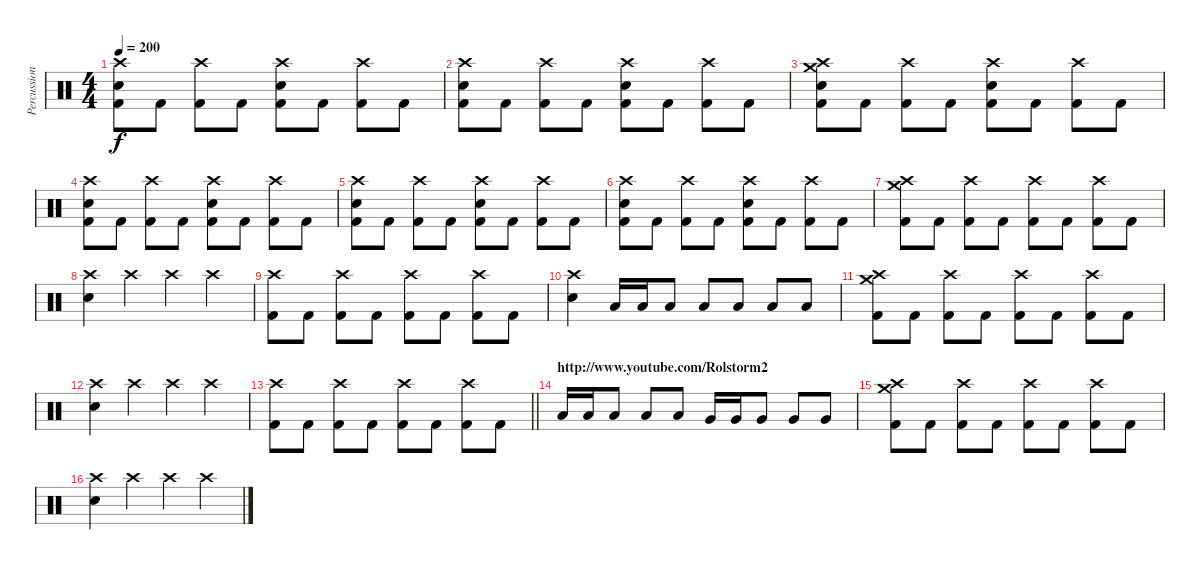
\track ("Percussion" "Percussion") {instrument percussion}
\staff {score}
\articulation defaults
\ts (4 4)
\tempo 200
\clef neutral
\ks c
("Crash high (hit)" "Electric Snare (hit)" "Kick (hit) 2").8{dy f} "Kick (hit) 2".8 ("Crash high (hit)" "Kick (hit) 2").8 "Kick (hit) 2".8 ("Crash high (hit)" "Electric Snare (hit)" "Kick (hit) 2").8 "Kick (hit) 2".8 ("Crash high (hit)" "Kick (hit) 2").8 "Kick (hit) 2".8 |
("Crash high (hit)" "Electric Snare (hit)" "Kick (hit) 2").8 "Kick (hit) 2".8 ("Crash high (hit)" "Kick (hit) 2").8 "Kick (hit) 2".8 ("Crash high (hit)" "Electric Snare (hit)" "Kick (hit) 2").8 "Kick (hit) 2".8 ("Crash high (hit)" "Kick (hit) 2").8 "Kick (hit) 2".8 |
("Crash high (hit)" "Crash medium (hit)" "Electric Snare (hit)" "Kick (hit) 2").8 "Kick (hit) 2".8 ("Crash high (hit)" "Kick (hit) 2").8 "Kick (hit) 2".8 ("Crash high (hit)" "Electric Snare (hit)" "Kick (hit) 2").8 "Kick (hit) 2".8 ("Crash high (hit)" "Kick (hit) 2").8 "Kick (hit) 2".8 |
("Crash high (hit)" "Electric Snare (hit)" "Kick (hit) 2").8 "Kick (hit) 2".8 ("Crash high (hit)" "Kick (hit) 2").8 "Kick (hit) 2".8 ("Crash high (hit)" "Electric Snare (hit)" "Kick (hit) 2").8 "Kick (hit) 2".8 ("Crash high (hit)" "Kick (hit) 2").8 "Kick (hit) 2".8 |
("Crash high (hit)" "Electric Snare (hit)" "Kick (hit) 2").8 "Kick (hit) 2".8 ("Crash high (hit)" "Kick (hit) 2").8 "Kick (hit) 2".8 ("Crash high (hit)" "Electric Snare (hit)" "Kick (hit) 2").8 "Kick (hit) 2".8 ("Crash high (hit)" "Kick (hit) 2").8 "Kick (hit) 2".8 |
("Crash high (hit)" "Electric Snare (hit)" "Kick (hit) 2").8 "Kick (hit) 2".8 ("Crash high (hit)" "Kick (hit) 2").8 "Kick (hit) 2".8 ("Crash high (hit)" "Electric Snare (hit)" "Kick (hit) 2").8 "Kick (hit) 2".8 ("Crash high (hit)" "Kick (hit) 2").8 "Kick (hit) 2".8 |
("Crash high (hit)" "Crash medium (hit)" "Kick (hit) 2").8 "Kick (hit) 2".8 ("Crash high (hit)" "Kick (hit) 2").8 "Kick (hit) 2".8 ("Crash high (hit)" "Kick (hit) 2").8 "Kick (hit) 2".8 ("Crash high (hit)" "Kick (hit) 2").8 "Kick (hit) 2".8 |
("Crash high (hit)" "Electric Snare (hit)").4 "Crash high (hit)".4 "Crash high (hit)".4 "Crash high (hit)".4 |
("Crash high (hit)" "Kick (hit) 2").8 "Kick (hit) 2".8 ("Crash high (hit)" "Kick (hit) 2").8 "Kick (hit) 2".8 ("Crash high (hit)" "Kick (hit) 2").8 "Kick (hit) 2".8 ("Crash high (hit)" "Kick (hit) 2").8 "Kick (hit) 2".8 |
("Crash high (hit)" "Electric Snare (hit)").4 "Low Tom (hit)".16 "Low Tom (hit)".16 "Low Tom (hit)".8 "Low Tom (hit)".8 "Low Tom (hit)".8 "Low Tom (hit)".8 "Low Tom (hit)".8 |
("Crash high (hit)" "Crash medium (hit)" "Kick (hit) 2").8 "Kick (hit) 2".8 ("Crash high (hit)" "Kick (hit) 2").8 "Kick (hit) 2".8 ("Crash high (hit)" "Kick (hit) 2").8 "Kick (hit) 2".8 ("Crash high (hit)" "Kick (hit) 2").8 "Kick (hit) 2".8 |
("Crash high (hit)" "Electric Snare (hit)").4 "Crash high (hit)".4 "Crash high (hit)".4 "Crash high (hit)".4 |
\barLineRight lightlight
("Crash high (hit)" "Kick (hit) 2").8 "Kick (hit) 2".8 ("Crash high (hit)" "Kick (hit) 2").8 "Kick (hit) 2".8 ("Crash high (hit)" "Kick (hit) 2").8 "Kick (hit) 2".8 ("Crash high (hit)" "Kick (hit) 2").8 "Kick (hit) 2".8 |
\section ("" "http://www.youtube.com/Rolstorm2")
"Low Tom (hit)".16 "Low Tom (hit)".16 "Low Tom (hit)".8 "Low Tom (hit)".8 "Low Tom (hit)".8 "Very Low Tom (hit)".16 "Very Low Tom (hit)".16 "Very Low Tom (hit)".8 "Very Low Tom (hit)".8 "Very Low Tom (hit)".8 |
("Crash high (hit)" "Crash medium (hit)" "Kick (hit) 2").8 "Kick (hit) 2".8 ("Crash high (hit)" "Kick (hit) 2").8 "Kick (hit) 2".8 ("Crash high (hit)" "Kick (hit) 2").8 "Kick (hit) 2".8 ("Crash high (hit)" "Kick (hit) 2").8 "Kick (hit) 2".8 |
("Crash high (hit)" "Electric Snare (hit)").4 "Crash high (hit)".4 "Crash high (hit)".4 "Crash high (hit)".4
